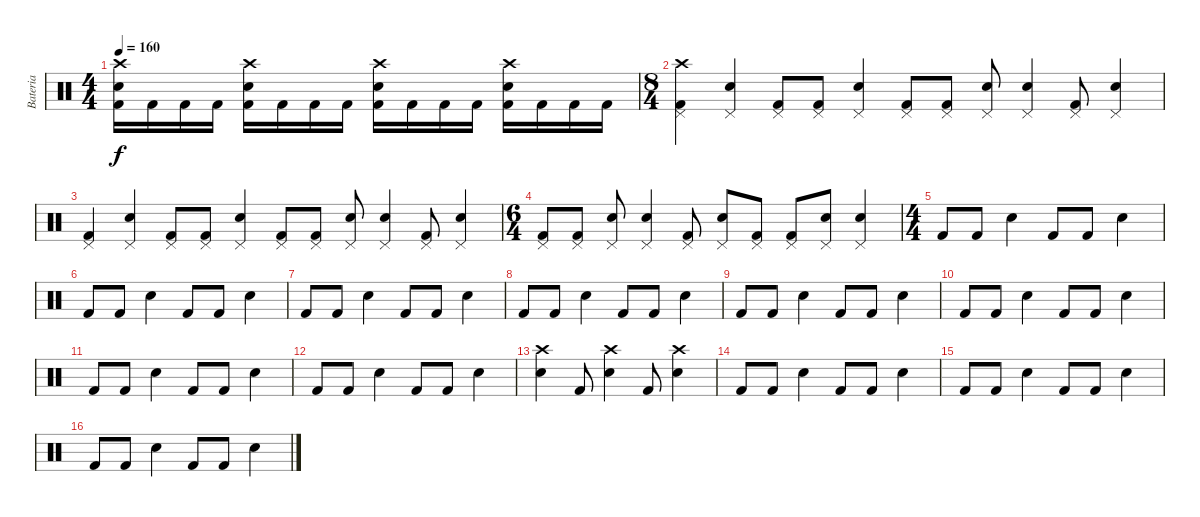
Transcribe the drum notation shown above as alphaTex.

\track ("Bateria" "Bateria") {instrument percussion}
\staff {score}
\articulation defaults
\ts (4 4)
\tempo 160
\clef neutral
\ks c
("Crash high (hit)" "Kick (hit) 2" "Electric Snare (hit)").16{dy f} "Kick (hit) 2".16 "Kick (hit) 2".16 "Kick (hit) 2".16 ("Crash high (hit)" "Kick (hit) 2" "Electric Snare (hit)").16 "Kick (hit) 2".16 "Kick (hit) 2".16 "Kick (hit) 2".16 ("Crash high (hit)" "Kick (hit) 2" "Electric Snare (hit)").16 "Kick (hit) 2".16 "Kick (hit) 2".16 "Kick (hit) 2".16 ("Crash high (hit)" "Kick (hit) 2" "Electric Snare (hit)").16 "Kick (hit) 2".16 "Kick (hit) 2".16 "Kick (hit) 2".16 |
\ts (8 4)
("Crash high (hit)" "Pedal Hi-Hat (hit)" "Kick (hit) 2").4 ("Pedal Hi-Hat (hit)" "Snare (hit) 2").4 ("Pedal Hi-Hat (hit)" "Kick (hit) 2").8 ("Pedal Hi-Hat (hit)" "Kick (hit) 2").8 ("Pedal Hi-Hat (hit)" "Snare (hit) 2").4 ("Pedal Hi-Hat (hit)" "Kick (hit) 2").8 ("Pedal Hi-Hat (hit)" "Kick (hit) 2").8 ("Pedal Hi-Hat (hit)" "Snare (hit) 2").8 ("Pedal Hi-Hat (hit)" "Snare (hit) 2").4 ("Pedal Hi-Hat (hit)" "Kick (hit) 2").8 ("Pedal Hi-Hat (hit)" "Snare (hit) 2").4 |
("Pedal Hi-Hat (hit)" "Kick (hit) 2").4 ("Pedal Hi-Hat (hit)" "Snare (hit) 2").4 ("Pedal Hi-Hat (hit)" "Kick (hit) 2").8 ("Pedal Hi-Hat (hit)" "Kick (hit) 2").8 ("Pedal Hi-Hat (hit)" "Snare (hit) 2").4 ("Pedal Hi-Hat (hit)" "Kick (hit) 2").8 ("Pedal Hi-Hat (hit)" "Kick (hit) 2").8 ("Pedal Hi-Hat (hit)" "Snare (hit) 2").8 ("Pedal Hi-Hat (hit)" "Snare (hit) 2").4 ("Pedal Hi-Hat (hit)" "Kick (hit) 2").8 ("Pedal Hi-Hat (hit)" "Snare (hit) 2").4 |
\ts (6 4)
("Pedal Hi-Hat (hit)" "Kick (hit) 2").8 ("Pedal Hi-Hat (hit)" "Kick (hit) 2").8 ("Pedal Hi-Hat (hit)" "Snare (hit) 2").8 ("Pedal Hi-Hat (hit)" "Snare (hit) 2").4 ("Pedal Hi-Hat (hit)" "Kick (hit) 2").8 ("Pedal Hi-Hat (hit)" "Snare (hit) 2").8 ("Pedal Hi-Hat (hit)" "Kick (hit) 2").8 ("Pedal Hi-Hat (hit)" "Kick (hit) 2").8 ("Pedal Hi-Hat (hit)" "Snare (hit) 2").8 ("Pedal Hi-Hat (hit)" "Snare (hit) 2").4 |
\ts (4 4)
"Kick (hit) 2".8 "Kick (hit) 2".8 "Electric Snare (hit)".4 "Kick (hit) 2".8 "Kick (hit) 2".8 "Electric Snare (hit)".4 |
"Kick (hit) 2".8 "Kick (hit) 2".8 "Electric Snare (hit)".4 "Kick (hit) 2".8 "Kick (hit) 2".8 "Electric Snare (hit)".4 |
"Kick (hit) 2".8 "Kick (hit) 2".8 "Electric Snare (hit)".4 "Kick (hit) 2".8 "Kick (hit) 2".8 "Electric Snare (hit)".4 |
"Kick (hit) 2".8 "Kick (hit) 2".8 "Electric Snare (hit)".4 "Kick (hit) 2".8 "Kick (hit) 2".8 "Electric Snare (hit)".4 |
"Kick (hit) 2".8 "Kick (hit) 2".8 "Electric Snare (hit)".4 "Kick (hit) 2".8 "Kick (hit) 2".8 "Electric Snare (hit)".4 |
"Kick (hit) 2".8 "Kick (hit) 2".8 "Electric Snare (hit)".4 "Kick (hit) 2".8 "Kick (hit) 2".8 "Electric Snare (hit)".4 |
"Kick (hit) 2".8 "Kick (hit) 2".8 "Electric Snare (hit)".4 "Kick (hit) 2".8 "Kick (hit) 2".8 "Electric Snare (hit)".4 |
"Kick (hit) 2".8 "Kick (hit) 2".8 "Electric Snare (hit)".4 "Kick (hit) 2".8 "Kick (hit) 2".8 "Electric Snare (hit)".4 |
("Snare (hit) 2" "Crash high (hit)").4 "Kick (hit) 2".8 ("Snare (hit) 2" "Crash high (hit)").4 "Kick (hit) 2".8 ("Snare (hit) 2" "Crash high (hit)").4 |
"Kick (hit) 2".8 "Kick (hit) 2".8 "Electric Snare (hit)".4 "Kick (hit) 2".8 "Kick (hit) 2".8 "Electric Snare (hit)".4 |
"Kick (hit) 2".8 "Kick (hit) 2".8 "Electric Snare (hit)".4 "Kick (hit) 2".8 "Kick (hit) 2".8 "Electric Snare (hit)".4 |
"Kick (hit) 2".8 "Kick (hit) 2".8 "Electric Snare (hit)".4 "Kick (hit) 2".8 "Kick (hit) 2".8 "Electric Snare (hit)".4
